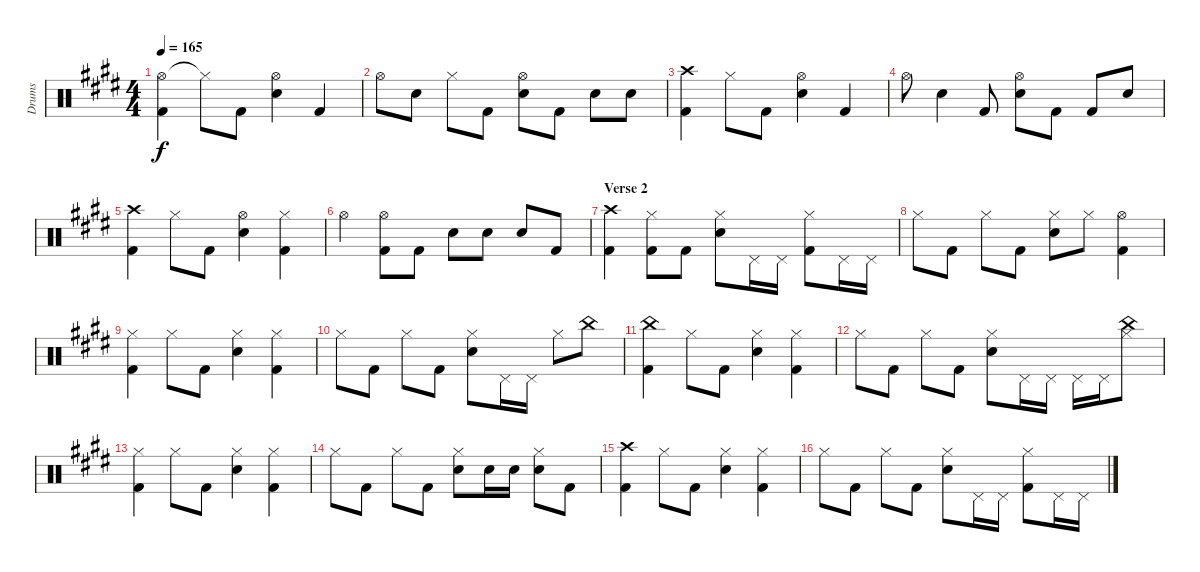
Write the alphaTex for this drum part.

\track ("Drums" "Drums") {instrument percussion}
\staff {score}
\articulation defaults
\ts (4 4)
\tempo 165
\clef neutral
\ks e
("Hi-Hat (open)" "Kick (hit) 2").4{dy f} "Hi-Hat (closed)"{t}.8 "Kick (hit) 2".8 ("Hi-Hat (open)" "Electric Snare (hit)").4 "Kick (hit) 2".4 |
"Hi-Hat (open)".8 "Electric Snare (hit)".8 "Hi-Hat (closed)".8 "Kick (hit) 2".8 ("Hi-Hat (open)" "Electric Snare (hit)").8 "Kick (hit) 2".8 "Electric Snare (hit)".8 "Electric Snare (hit)".8 |
("Crash high (hit)" "Kick (hit) 2").4 "Hi-Hat (closed)".8 "Kick (hit) 2".8 ("Hi-Hat (open)" "Electric Snare (hit)").4 "Kick (hit) 2".4 |
"Hi-Hat (open)".8 "Electric Snare (hit)".4 "Kick (hit) 2".8 ("Hi-Hat (open)" "Electric Snare (hit)").8 "Kick (hit) 2".8 "Kick (hit) 2".8 "Electric Snare (hit)".8 |
("Kick (hit) 2" "Crash high (hit)").4 "Hi-Hat (closed)".8 "Kick (hit) 2".8 ("Electric Snare (hit)" "Hi-Hat (open)").4 ("Kick (hit) 2" "Hi-Hat (closed)").4 |
"Hi-Hat (open)".4 ("Kick (hit) 2" "Hi-Hat (open)").8 "Kick (hit) 2".8 "Electric Snare (hit)".8 "Electric Snare (hit)".8 "Electric Snare (hit)".8 "Kick (hit) 2".8 |
\section ("" "Verse 2")
("Kick (hit) 2" "Crash high (hit)").4 ("Kick (hit) 2" "Hi-Hat (closed)").8 "Kick (hit) 2".8 ("Electric Snare (hit)" "Hi-Hat (closed)").8 "Pedal Hi-Hat (hit)".16 "Pedal Hi-Hat (hit)".16 ("Kick (hit) 2" "Hi-Hat (closed)").8 "Pedal Hi-Hat (hit)".16 "Pedal Hi-Hat (hit)".16 |
"Hi-Hat (closed)".8 "Kick (hit) 2".8 "Hi-Hat (closed)".8 "Kick (hit) 2".8 ("Electric Snare (hit)" "Hi-Hat (closed)").8 "Hi-Hat (closed)".8 ("Kick (hit) 2" "Hi-Hat (open)").4 |
("Kick (hit) 2" "Hi-Hat (closed)").4 "Hi-Hat (closed)".8 "Kick (hit) 2".8 ("Electric Snare (hit)" "Hi-Hat (closed)").4 ("Kick (hit) 2" "Hi-Hat (closed)").4 |
"Hi-Hat (closed)".8 "Kick (hit) 2".8 "Hi-Hat (closed)".8 "Kick (hit) 2".8 ("Electric Snare (hit)" "Hi-Hat (closed)").8 "Pedal Hi-Hat (hit)".16 "Pedal Hi-Hat (hit)".16 "Hi-Hat (closed)".8 "China (hit)".8 |
("Kick (hit) 2" "China (hit)").4 "Hi-Hat (closed)".8 "Kick (hit) 2".8 ("Electric Snare (hit)" "Hi-Hat (closed)").4 ("Hi-Hat (closed)" "Kick (hit) 2").4 |
"Hi-Hat (closed)".8 "Kick (hit) 2".8 "Hi-Hat (closed)".8 "Kick (hit) 2".8 ("Electric Snare (hit)" "Hi-Hat (closed)").8 "Pedal Hi-Hat (hit)".16 "Pedal Hi-Hat (hit)".16 "Pedal Hi-Hat (hit)".16 "Pedal Hi-Hat (hit)".16 ("Hi-Hat (closed)" "China (hit)").8 |
("Kick (hit) 2" "Hi-Hat (closed)").4 "Hi-Hat (closed)".8 "Kick (hit) 2".8 ("Electric Snare (hit)" "Hi-Hat (closed)").4 ("Kick (hit) 2" "Hi-Hat (closed)").4 |
"Hi-Hat (closed)".8 "Kick (hit) 2".8 "Hi-Hat (closed)".8 "Kick (hit) 2".8 ("Electric Snare (hit)" "Hi-Hat (closed)").8 "Electric Snare (hit)".16 "Electric Snare (hit)".16 ("Electric Snare (hit)" "Hi-Hat (closed)").8 "Kick (hit) 2".8 |
("Kick (hit) 2" "Crash high (hit)").4 "Hi-Hat (closed)".8 "Kick (hit) 2".8 ("Electric Snare (hit)" "Hi-Hat (closed)").4 ("Kick (hit) 2" "Hi-Hat (closed)").4 |
"Hi-Hat (closed)".8 "Kick (hit) 2".8 "Hi-Hat (closed)".8 "Kick (hit) 2".8 ("Electric Snare (hit)" "Hi-Hat (closed)").8 "Pedal Hi-Hat (hit)".16 "Pedal Hi-Hat (hit)".16 ("Kick (hit) 2" "Hi-Hat (closed)").8 "Pedal Hi-Hat (hit)".16 "Pedal Hi-Hat (hit)".16
